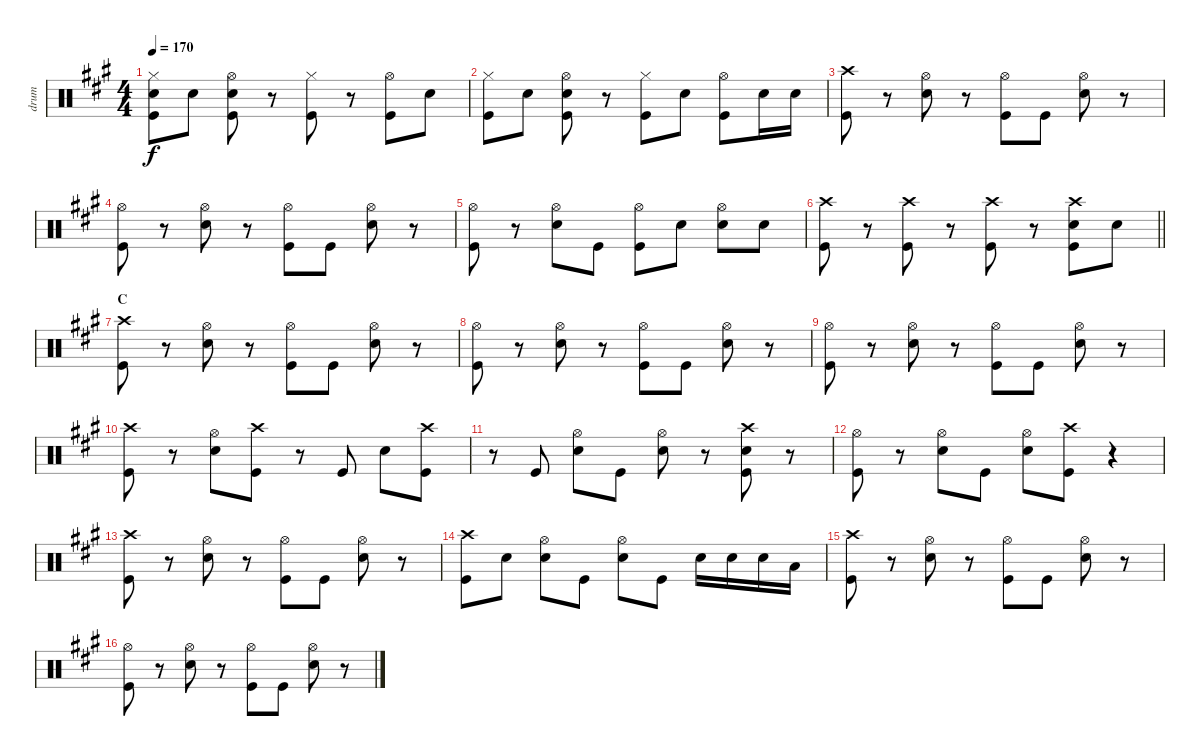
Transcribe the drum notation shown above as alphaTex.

\track ("drum" "drum") {instrument percussion}
\staff {score}
\articulation defaults
\ts (4 4)
\tempo 170
\clef neutral
\ks a
("Hi-Hat (closed)" "Snare (hit) 2" "Kick (hit)").8{dy f} "Snare (hit) 2".8 ("Hi-Hat (open)" "Snare (hit) 2" "Kick (hit)").8 r.8 ("Hi-Hat (closed)" "Kick (hit)").8 r.8 ("Hi-Hat (open)" "Kick (hit)").8 "Snare (hit) 2".8 |
("Hi-Hat (closed)" "Kick (hit)").8 "Snare (hit) 2".8 ("Hi-Hat (open)" "Snare (hit) 2" "Kick (hit)").8 r.8 ("Hi-Hat (closed)" "Kick (hit)").8 "Snare (hit) 2".8 ("Hi-Hat (open)" "Kick (hit)").8 "Snare (hit) 2".16 "Snare (hit) 2".16 |
("Crash high (hit)" "Kick (hit)").8 r.8 ("Hi-Hat (open)" "Snare (hit) 2").8 r.8 ("Hi-Hat (open)" "Kick (hit)").8 "Kick (hit)".8 ("Hi-Hat (open)" "Snare (hit) 2").8 r.8 |
("Hi-Hat (open)" "Kick (hit)").8 r.8 ("Hi-Hat (open)" "Snare (hit) 2").8 r.8 ("Hi-Hat (open)" "Kick (hit)").8 "Kick (hit)".8 ("Hi-Hat (open)" "Snare (hit) 2").8 r.8 |
("Hi-Hat (open)" "Kick (hit)").8 r.8 ("Hi-Hat (open)" "Snare (hit) 2").8 "Kick (hit)".8 ("Hi-Hat (open)" "Kick (hit)").8 "Snare (hit) 2".8 ("Hi-Hat (open)" "Snare (hit) 2").8 "Snare (hit) 2".8 |
\barLineRight lightlight
("Crash high (hit)" "Kick (hit)").8 r.8 ("Crash high (hit)" "Kick (hit)").8 r.8 ("Crash high (hit)" "Kick (hit)").8 r.8 ("Crash high (hit)" "Snare (hit) 2" "Kick (hit)").8 "Snare (hit) 2".8 |
\section ("" "C")
("Crash high (hit)" "Kick (hit)").8 r.8 ("Hi-Hat (open)" "Snare (hit) 2").8 r.8 ("Hi-Hat (open)" "Kick (hit)").8 "Kick (hit)".8 ("Hi-Hat (open)" "Snare (hit) 2").8 r.8 |
("Hi-Hat (open)" "Kick (hit)").8 r.8 ("Hi-Hat (open)" "Snare (hit) 2").8 r.8 ("Hi-Hat (open)" "Kick (hit)").8 "Kick (hit)".8 ("Hi-Hat (open)" "Snare (hit) 2").8 r.8 |
("Hi-Hat (open)" "Kick (hit)").8 r.8 ("Hi-Hat (open)" "Snare (hit) 2").8 r.8 ("Hi-Hat (open)" "Kick (hit)").8 "Kick (hit)".8 ("Hi-Hat (open)" "Snare (hit) 2").8 r.8 |
("Crash high (hit)" "Kick (hit)").8 r.8 ("Hi-Hat (open)" "Snare (hit) 2").8 ("Crash high (hit)" "Kick (hit)").8 r.8 "Kick (hit)".8 "Snare (hit) 2".8 ("Crash high (hit)" "Kick (hit)").8 |
r.8 "Kick (hit)".8 ("Hi-Hat (open)" "Snare (hit) 2").8 "Kick (hit)".8 ("Hi-Hat (open)" "Snare (hit) 2").8 r.8 ("Crash high (hit)" "Snare (hit) 2" "Kick (hit)").8 r.8 |
("Hi-Hat (open)" "Kick (hit)").8 r.8 ("Hi-Hat (open)" "Snare (hit) 2").8 "Kick (hit)".8 ("Hi-Hat (open)" "Snare (hit) 2").8 ("Crash high (hit)" "Kick (hit)").8 r.4 |
("Crash high (hit)" "Kick (hit)").8 r.8 ("Hi-Hat (open)" "Snare (hit) 2").8 r.8 ("Hi-Hat (open)" "Kick (hit)").8 "Kick (hit)".8 ("Hi-Hat (open)" "Snare (hit) 2").8 r.8 |
("Crash high (hit)" "Kick (hit)").8 "Snare (hit) 2".8 ("Hi-Hat (open)" "Snare (hit) 2").8 "Kick (hit)".8 ("Hi-Hat (open)" "Snare (hit) 2").8 "Kick (hit)".8 "Snare (hit) 2".16 "Snare (hit) 2".16 "Snare (hit) 2".16 "Low Tom (hit)".16 |
("Crash high (hit)" "Kick (hit)").8 r.8 ("Hi-Hat (open)" "Snare (hit) 2").8 r.8 ("Hi-Hat (open)" "Kick (hit)").8 "Kick (hit)".8 ("Hi-Hat (open)" "Snare (hit) 2").8 r.8 |
("Hi-Hat (open)" "Kick (hit)").8 r.8 ("Hi-Hat (open)" "Snare (hit) 2").8 r.8 ("Hi-Hat (open)" "Kick (hit)").8 "Kick (hit)".8 ("Hi-Hat (open)" "Snare (hit) 2").8 r.8
